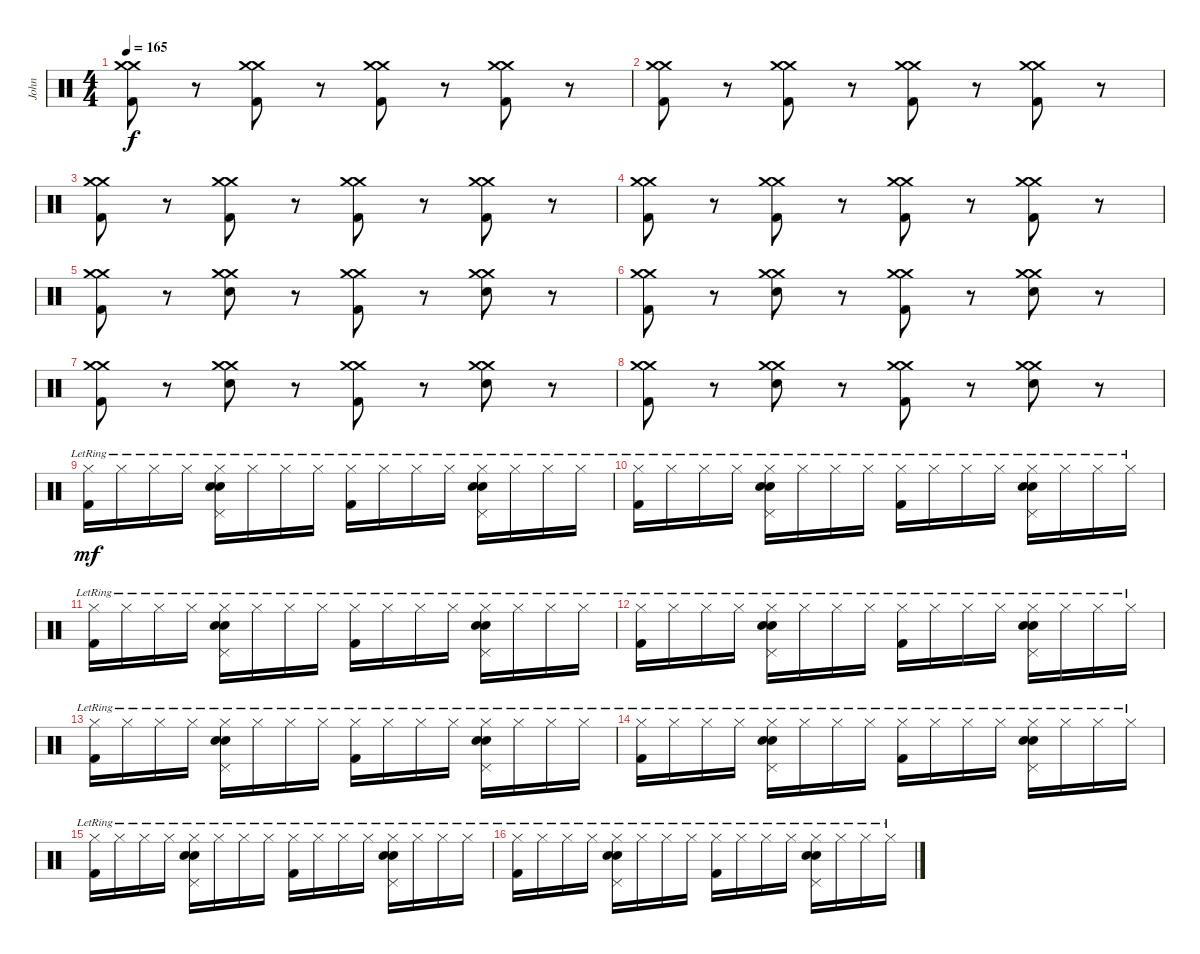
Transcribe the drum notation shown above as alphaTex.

\track ("John" "John") {instrument percussion}
\staff {score}
\articulation defaults
\ts (4 4)
\tempo 165
\clef neutral
\ks c
("Crash medium (hit)" "Crash medium (hit)" "Kick (hit) 2").8{dy f} r.8 ("Crash medium (hit)" "Crash medium (hit)" "Kick (hit) 2").8 r.8 ("Crash medium (hit)" "Crash medium (hit)" "Kick (hit) 2").8 r.8 ("Crash medium (hit)" "Crash medium (hit)" "Kick (hit) 2").8 r.8 |
("Crash medium (hit)" "Crash medium (hit)" "Kick (hit) 2").8 r.8 ("Crash medium (hit)" "Crash medium (hit)" "Kick (hit) 2").8 r.8 ("Crash medium (hit)" "Crash medium (hit)" "Kick (hit) 2").8 r.8 ("Crash medium (hit)" "Crash medium (hit)" "Kick (hit) 2").8 r.8 |
("Crash medium (hit)" "Crash medium (hit)" "Kick (hit) 2").8 r.8 ("Crash medium (hit)" "Crash medium (hit)" "Kick (hit) 2").8 r.8 ("Crash medium (hit)" "Crash medium (hit)" "Kick (hit) 2").8 r.8 ("Crash medium (hit)" "Crash medium (hit)" "Kick (hit) 2").8 r.8 |
("Crash medium (hit)" "Crash medium (hit)" "Kick (hit) 2").8 r.8 ("Crash medium (hit)" "Crash medium (hit)" "Kick (hit) 2").8 r.8 ("Crash medium (hit)" "Crash medium (hit)" "Kick (hit) 2").8 r.8 ("Crash medium (hit)" "Crash medium (hit)" "Kick (hit) 2").8 r.8 |
("Crash medium (hit)" "Crash medium (hit)" "Kick (hit) 2").8 r.8 ("Crash medium (hit)" "Crash medium (hit)" "Electric Snare (hit)").8 r.8 ("Crash medium (hit)" "Crash medium (hit)" "Kick (hit) 2").8 r.8 ("Crash medium (hit)" "Crash medium (hit)" "Electric Snare (hit)").8 r.8 |
("Crash medium (hit)" "Crash medium (hit)" "Kick (hit) 2").8 r.8 ("Crash medium (hit)" "Crash medium (hit)" "Electric Snare (hit)").8 r.8 ("Crash medium (hit)" "Crash medium (hit)" "Kick (hit) 2").8 r.8 ("Crash medium (hit)" "Crash medium (hit)" "Electric Snare (hit)").8 r.8 |
("Crash medium (hit)" "Crash medium (hit)" "Kick (hit) 2").8 r.8 ("Crash medium (hit)" "Crash medium (hit)" "Electric Snare (hit)").8 r.8 ("Crash medium (hit)" "Crash medium (hit)" "Kick (hit) 2").8 r.8 ("Crash medium (hit)" "Crash medium (hit)" "Electric Snare (hit)").8 r.8 |
("Crash medium (hit)" "Crash medium (hit)" "Kick (hit) 2").8 r.8 ("Crash medium (hit)" "Crash medium (hit)" "Electric Snare (hit)").8 r.8 ("Crash medium (hit)" "Crash medium (hit)" "Kick (hit) 2").8 r.8 ("Crash medium (hit)" "Crash medium (hit)" "Electric Snare (hit)").8 r.8 |
("Hi-Hat (closed)"{lr} "Kick (hit) 2").16{dy mf} "Hi-Hat (closed)"{lr}.16 "Hi-Hat (closed)"{lr}.16 "Hi-Hat (closed)"{lr}.16 ("Hi-Hat (closed)"{lr} "Pedal Hi-Hat (hit)" "Electric Snare (hit)" "Electric Snare (hit)").16 "Hi-Hat (closed)"{lr}.16 "Hi-Hat (closed)"{lr}.16 "Hi-Hat (closed)"{lr}.16 ("Hi-Hat (closed)"{lr} "Kick (hit) 2").16 "Hi-Hat (closed)"{lr}.16 "Hi-Hat (closed)"{lr}.16 "Hi-Hat (closed)"{lr}.16 ("Hi-Hat (closed)"{lr} "Pedal Hi-Hat (hit)" "Electric Snare (hit)" "Electric Snare (hit)").16 "Hi-Hat (closed)"{lr}.16 "Hi-Hat (closed)"{lr}.16 "Hi-Hat (closed)"{lr}.16 |
("Hi-Hat (closed)"{lr} "Kick (hit) 2").16 "Hi-Hat (closed)"{lr}.16 "Hi-Hat (closed)"{lr}.16 "Hi-Hat (closed)"{lr}.16 ("Hi-Hat (closed)"{lr} "Pedal Hi-Hat (hit)" "Electric Snare (hit)" "Electric Snare (hit)").16 "Hi-Hat (closed)"{lr}.16 "Hi-Hat (closed)"{lr}.16 "Hi-Hat (closed)"{lr}.16 ("Hi-Hat (closed)"{lr} "Kick (hit) 2").16 "Hi-Hat (closed)"{lr}.16 "Hi-Hat (closed)"{lr}.16 "Hi-Hat (closed)"{lr}.16 ("Hi-Hat (closed)"{lr} "Pedal Hi-Hat (hit)" "Electric Snare (hit)" "Electric Snare (hit)").16 "Hi-Hat (closed)"{lr}.16 "Hi-Hat (closed)"{lr}.16 "Hi-Hat (closed)"{lr}.16 |
("Hi-Hat (closed)"{lr} "Kick (hit) 2").16 "Hi-Hat (closed)"{lr}.16 "Hi-Hat (closed)"{lr}.16 "Hi-Hat (closed)"{lr}.16 ("Hi-Hat (closed)"{lr} "Pedal Hi-Hat (hit)" "Electric Snare (hit)" "Electric Snare (hit)").16 "Hi-Hat (closed)"{lr}.16 "Hi-Hat (closed)"{lr}.16 "Hi-Hat (closed)"{lr}.16 ("Hi-Hat (closed)"{lr} "Kick (hit) 2").16 "Hi-Hat (closed)"{lr}.16 "Hi-Hat (closed)"{lr}.16 "Hi-Hat (closed)"{lr}.16 ("Hi-Hat (closed)"{lr} "Pedal Hi-Hat (hit)" "Electric Snare (hit)" "Electric Snare (hit)").16 "Hi-Hat (closed)"{lr}.16 "Hi-Hat (closed)"{lr}.16 "Hi-Hat (closed)"{lr}.16 |
("Hi-Hat (closed)"{lr} "Kick (hit) 2").16 "Hi-Hat (closed)"{lr}.16 "Hi-Hat (closed)"{lr}.16 "Hi-Hat (closed)"{lr}.16 ("Hi-Hat (closed)"{lr} "Pedal Hi-Hat (hit)" "Electric Snare (hit)" "Electric Snare (hit)").16 "Hi-Hat (closed)"{lr}.16 "Hi-Hat (closed)"{lr}.16 "Hi-Hat (closed)"{lr}.16 ("Hi-Hat (closed)"{lr} "Kick (hit) 2").16 "Hi-Hat (closed)"{lr}.16 "Hi-Hat (closed)"{lr}.16 "Hi-Hat (closed)"{lr}.16 ("Hi-Hat (closed)"{lr} "Pedal Hi-Hat (hit)" "Electric Snare (hit)" "Electric Snare (hit)").16 "Hi-Hat (closed)"{lr}.16 "Hi-Hat (closed)"{lr}.16 "Hi-Hat (closed)"{lr}.16 |
("Hi-Hat (closed)"{lr} "Kick (hit) 2").16 "Hi-Hat (closed)"{lr}.16 "Hi-Hat (closed)"{lr}.16 "Hi-Hat (closed)"{lr}.16 ("Hi-Hat (closed)"{lr} "Pedal Hi-Hat (hit)" "Electric Snare (hit)" "Electric Snare (hit)").16 "Hi-Hat (closed)"{lr}.16 "Hi-Hat (closed)"{lr}.16 "Hi-Hat (closed)"{lr}.16 ("Hi-Hat (closed)"{lr} "Kick (hit) 2").16 "Hi-Hat (closed)"{lr}.16 "Hi-Hat (closed)"{lr}.16 "Hi-Hat (closed)"{lr}.16 ("Hi-Hat (closed)"{lr} "Pedal Hi-Hat (hit)" "Electric Snare (hit)" "Electric Snare (hit)").16 "Hi-Hat (closed)"{lr}.16 "Hi-Hat (closed)"{lr}.16 "Hi-Hat (closed)"{lr}.16 |
("Hi-Hat (closed)"{lr} "Kick (hit) 2").16 "Hi-Hat (closed)"{lr}.16 "Hi-Hat (closed)"{lr}.16 "Hi-Hat (closed)"{lr}.16 ("Hi-Hat (closed)"{lr} "Pedal Hi-Hat (hit)" "Electric Snare (hit)" "Electric Snare (hit)").16 "Hi-Hat (closed)"{lr}.16 "Hi-Hat (closed)"{lr}.16 "Hi-Hat (closed)"{lr}.16 ("Hi-Hat (closed)"{lr} "Kick (hit) 2").16 "Hi-Hat (closed)"{lr}.16 "Hi-Hat (closed)"{lr}.16 "Hi-Hat (closed)"{lr}.16 ("Hi-Hat (closed)"{lr} "Pedal Hi-Hat (hit)" "Electric Snare (hit)" "Electric Snare (hit)").16 "Hi-Hat (closed)"{lr}.16 "Hi-Hat (closed)"{lr}.16 "Hi-Hat (closed)"{lr}.16 |
("Hi-Hat (closed)"{lr} "Kick (hit) 2").16 "Hi-Hat (closed)"{lr}.16 "Hi-Hat (closed)"{lr}.16 "Hi-Hat (closed)"{lr}.16 ("Hi-Hat (closed)"{lr} "Pedal Hi-Hat (hit)" "Electric Snare (hit)" "Electric Snare (hit)").16 "Hi-Hat (closed)"{lr}.16 "Hi-Hat (closed)"{lr}.16 "Hi-Hat (closed)"{lr}.16 ("Hi-Hat (closed)"{lr} "Kick (hit) 2").16 "Hi-Hat (closed)"{lr}.16 "Hi-Hat (closed)"{lr}.16 "Hi-Hat (closed)"{lr}.16 ("Hi-Hat (closed)"{lr} "Pedal Hi-Hat (hit)" "Electric Snare (hit)" "Electric Snare (hit)").16 "Hi-Hat (closed)"{lr}.16 "Hi-Hat (closed)"{lr}.16 "Hi-Hat (closed)"{lr}.16 |
("Hi-Hat (closed)"{lr} "Kick (hit) 2").16 "Hi-Hat (closed)"{lr}.16 "Hi-Hat (closed)"{lr}.16 "Hi-Hat (closed)"{lr}.16 ("Hi-Hat (closed)"{lr} "Pedal Hi-Hat (hit)" "Electric Snare (hit)" "Electric Snare (hit)").16 "Hi-Hat (closed)"{lr}.16 "Hi-Hat (closed)"{lr}.16 "Hi-Hat (closed)"{lr}.16 ("Hi-Hat (closed)"{lr} "Kick (hit) 2").16 "Hi-Hat (closed)"{lr}.16 "Hi-Hat (closed)"{lr}.16 "Hi-Hat (closed)"{lr}.16 ("Hi-Hat (closed)"{lr} "Pedal Hi-Hat (hit)" "Electric Snare (hit)" "Electric Snare (hit)").16 "Hi-Hat (closed)"{lr}.16 "Hi-Hat (closed)"{lr}.16 "Hi-Hat (closed)"{lr}.16
